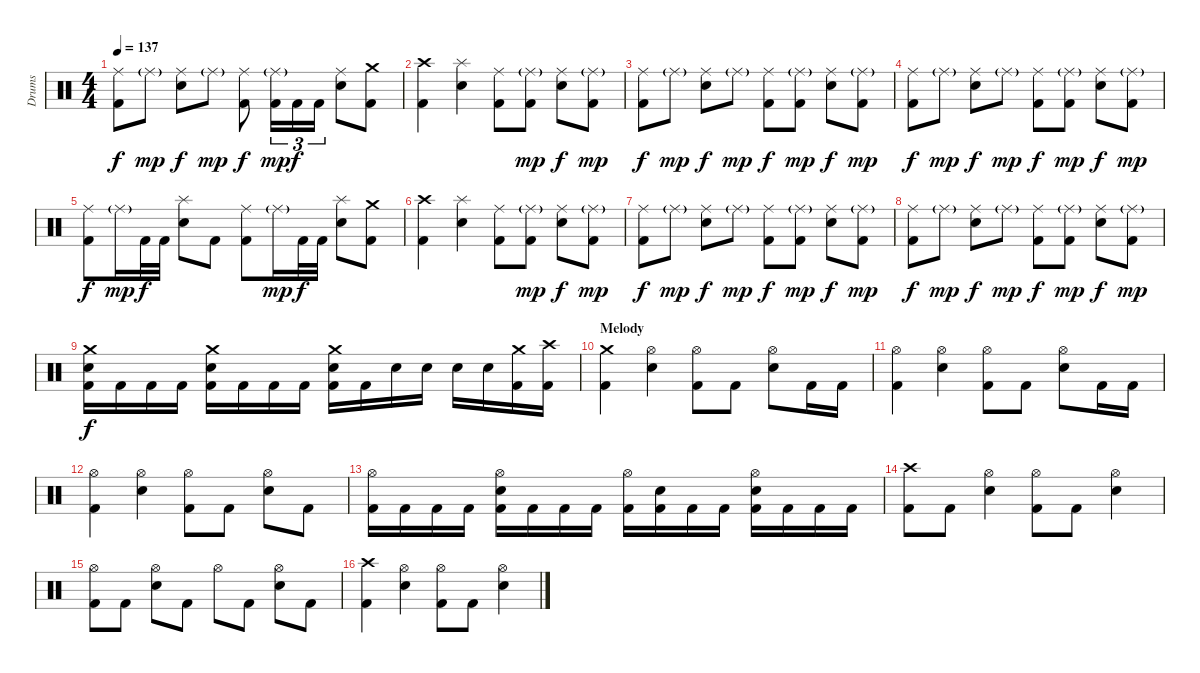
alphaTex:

\track ("Drums" "Drums") {instrument percussion}
\staff {score}
\articulation defaults
\ts (4 4)
\tempo 137
\clef neutral
\ks c
("Ride (middle)" "Kick (hit) 2").8{dy f} "Ride (middle)"{g}.8{dy mp} ("Ride (middle)" "Snare (hit) 2").8{dy f} "Ride (middle)"{g}.8{dy mp} ("Ride (middle)" "Kick (hit) 2").8{dy f} ("Ride (middle)"{g} "Kick (hit) 2").16{tu (3 2) dy mp} "Kick (hit) 2".16{tu (3 2) dy f} "Kick (hit) 2".16{tu (3 2)} ("Ride (middle)" "Snare (hit) 2").8 ("Crash medium (hit)" "Kick (hit) 2").8 |
("Crash high (hit)" "Kick (hit) 2").4 ("Splash (hit)" "Snare (hit) 2").4 ("Ride (middle)" "Kick (hit) 2").8 ("Ride (middle)"{g} "Kick (hit) 2").8{dy mp} ("Ride (middle)" "Snare (hit) 2").8{dy f} ("Ride (middle)"{g} "Kick (hit) 2").8{dy mp} |
("Ride (middle)" "Kick (hit) 2").8{dy f} "Ride (middle)"{g}.8{dy mp} ("Ride (middle)" "Snare (hit) 2").8{dy f} "Ride (middle)"{g}.8{dy mp} ("Ride (middle)" "Kick (hit) 2").8{dy f} ("Ride (middle)"{g} "Kick (hit) 2").8{dy mp} ("Ride (middle)" "Snare (hit) 2").8{dy f} ("Ride (middle)"{g} "Kick (hit) 2").8{dy mp} |
("Ride (middle)" "Kick (hit) 2").8{dy f} "Ride (middle)"{g}.8{dy mp} ("Ride (middle)" "Snare (hit) 2").8{dy f} "Ride (middle)"{g}.8{dy mp} ("Ride (middle)" "Kick (hit) 2").8{dy f} ("Ride (middle)"{g} "Kick (hit) 2").8{dy mp} ("Ride (middle)" "Snare (hit) 2").8{dy f} ("Ride (middle)"{g} "Kick (hit) 2").8{dy mp} |
("Ride (middle)" "Kick (hit) 2").8{dy f} "Ride (middle)"{g}.16{dy mp} "Kick (hit) 2".32{dy f} "Kick (hit) 2".32 ("Splash (hit)" "Snare (hit) 2").8 "Kick (hit) 2".8 ("Ride (middle)" "Kick (hit) 2").8 "Ride (middle)"{g}.16{dy mp} "Kick (hit) 2".32{dy f} "Kick (hit) 2".32 ("Splash (hit)" "Snare (hit) 2").8 ("Crash medium (hit)" "Kick (hit) 2").8 |
("Crash high (hit)" "Kick (hit) 2").4 ("Splash (hit)" "Snare (hit) 2").4 ("Ride (middle)" "Kick (hit) 2").8 ("Ride (middle)"{g} "Kick (hit) 2").8{dy mp} ("Ride (middle)" "Snare (hit) 2").8{dy f} ("Ride (middle)"{g} "Kick (hit) 2").8{dy mp} |
("Ride (middle)" "Kick (hit) 2").8{dy f} "Ride (middle)"{g}.8{dy mp} ("Ride (middle)" "Snare (hit) 2").8{dy f} "Ride (middle)"{g}.8{dy mp} ("Ride (middle)" "Kick (hit) 2").8{dy f} ("Ride (middle)"{g} "Kick (hit) 2").8{dy mp} ("Ride (middle)" "Snare (hit) 2").8{dy f} ("Ride (middle)"{g} "Kick (hit) 2").8{dy mp} |
("Ride (middle)" "Kick (hit) 2").8{dy f} "Ride (middle)"{g}.8{dy mp} ("Ride (middle)" "Snare (hit) 2").8{dy f} "Ride (middle)"{g}.8{dy mp} ("Ride (middle)" "Kick (hit) 2").8{dy f} ("Ride (middle)"{g} "Kick (hit) 2").8{dy mp} ("Ride (middle)" "Snare (hit) 2").8{dy f} ("Ride (middle)"{g} "Kick (hit) 2").8{dy mp} |
("Crash medium (hit)" "Snare (hit) 2" "Kick (hit) 2").16{dy f} "Kick (hit) 2".16 "Kick (hit) 2".16 "Kick (hit) 2".16 ("Crash medium (hit)" "Snare (hit) 2" "Kick (hit) 2").16 "Kick (hit) 2".16 "Kick (hit) 2".16 "Kick (hit) 2".16 ("Crash medium (hit)" "Snare (hit) 2" "Kick (hit) 2").16 "Kick (hit) 2".16 "Snare (hit) 2".16 "Snare (hit) 2".16 "Snare (hit) 2".16 "Snare (hit) 2".16 ("Crash medium (hit)" "Kick (hit) 2").16 ("Crash high (hit)" "Kick (hit) 2").16 |
\section ("" "Melody")
("Crash medium (hit)" "Kick (hit) 2").4 ("Hi-Hat (open)" "Snare (hit) 2").4 ("Hi-Hat (open)" "Kick (hit) 2").8 "Kick (hit) 2".8 ("Hi-Hat (open)" "Snare (hit) 2").8 "Kick (hit) 2".16 "Kick (hit) 2".16 |
("Hi-Hat (open)" "Kick (hit) 2").4 ("Hi-Hat (open)" "Snare (hit) 2").4 ("Hi-Hat (open)" "Kick (hit) 2").8 "Kick (hit) 2".8 ("Hi-Hat (open)" "Snare (hit) 2").8 "Kick (hit) 2".16 "Kick (hit) 2".16 |
("Hi-Hat (open)" "Kick (hit) 2").4 ("Hi-Hat (open)" "Snare (hit) 2").4 ("Hi-Hat (open)" "Kick (hit) 2").8 "Kick (hit) 2".8 ("Hi-Hat (open)" "Snare (hit) 2").8 "Kick (hit) 2".8 |
("Hi-Hat (open)" "Kick (hit) 2").16 "Kick (hit) 2".16 "Kick (hit) 2".16 "Kick (hit) 2".16 ("Hi-Hat (open)" "Snare (hit) 2" "Kick (hit) 2").16 "Kick (hit) 2".16 "Kick (hit) 2".16 "Kick (hit) 2".16 ("Hi-Hat (open)" "Kick (hit) 2").16 ("Snare (hit) 2" "Kick (hit) 2").16 "Kick (hit) 2".16 "Kick (hit) 2".16 ("Hi-Hat (open)" "Snare (hit) 2" "Kick (hit) 2").16 "Kick (hit) 2".16 "Kick (hit) 2".16 "Kick (hit) 2".16 |
("Crash high (hit)" "Kick (hit) 2").8 "Kick (hit) 2".8 ("Hi-Hat (open)" "Snare (hit) 2").4 ("Hi-Hat (open)" "Kick (hit) 2").8 "Kick (hit) 2".8 ("Hi-Hat (open)" "Snare (hit) 2").4 |
("Hi-Hat (open)" "Kick (hit) 2").8 "Kick (hit) 2".8 ("Hi-Hat (open)" "Snare (hit) 2").8 "Kick (hit) 2".8 "Hi-Hat (open)".8 "Kick (hit) 2".8 ("Hi-Hat (open)" "Snare (hit) 2").8 "Kick (hit) 2".8 |
("Crash high (hit)" "Kick (hit) 2").4 ("Hi-Hat (open)" "Snare (hit) 2").4 ("Hi-Hat (open)" "Kick (hit) 2").8 "Kick (hit) 2".8 ("Hi-Hat (open)" "Snare (hit) 2").4
